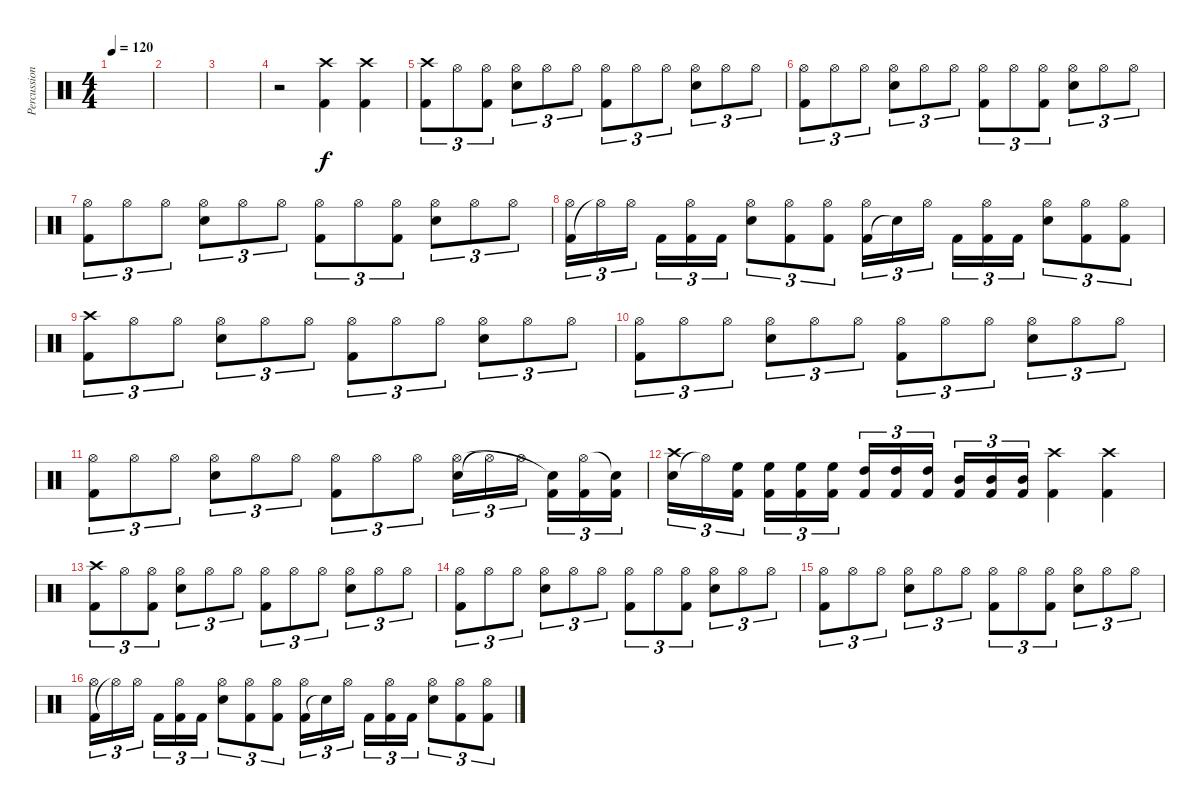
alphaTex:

\track ("Percussions" "Percussion") {instrument percussion}
\staff {score}
\articulation defaults
\ts (4 4)
\tempo 120
\clef neutral
\ks c
|
|
|
r.2 ("Kick (hit) 2" "Crash high (hit)").4 ("Kick (hit) 2" "Crash high (hit)").4 |
("Kick (hit) 2" "Crash high (hit)").8{tu (3 2)} "Hi-Hat (open)".8{tu (3 2)} ("Kick (hit) 2" "Hi-Hat (open)").8{tu (3 2)} ("Snare (hit) 2" "Hi-Hat (open)").8{tu (3 2)} "Hi-Hat (open)".8{tu (3 2)} "Hi-Hat (open)".8{tu (3 2)} ("Kick (hit) 2" "Hi-Hat (open)").8{tu (3 2)} "Hi-Hat (open)".8{tu (3 2)} "Hi-Hat (open)".8{tu (3 2)} ("Snare (hit) 2" "Hi-Hat (open)").8{tu (3 2)} "Hi-Hat (open)".8{tu (3 2)} "Hi-Hat (open)".8{tu (3 2)} |
("Kick (hit) 2" "Hi-Hat (open)").8{tu (3 2)} "Hi-Hat (open)".8{tu (3 2)} "Hi-Hat (open)".8{tu (3 2)} ("Snare (hit) 2" "Hi-Hat (open)").8{tu (3 2)} "Hi-Hat (open)".8{tu (3 2)} "Hi-Hat (open)".8{tu (3 2)} ("Kick (hit) 2" "Hi-Hat (open)").8{tu (3 2)} "Hi-Hat (open)".8{tu (3 2)} ("Kick (hit) 2" "Hi-Hat (open)").8{tu (3 2)} ("Snare (hit) 2" "Hi-Hat (open)").8{tu (3 2)} "Hi-Hat (open)".8{tu (3 2)} "Hi-Hat (open)".8{tu (3 2)} |
("Kick (hit) 2" "Hi-Hat (open)").8{tu (3 2)} "Hi-Hat (open)".8{tu (3 2)} "Hi-Hat (open)".8{tu (3 2)} ("Snare (hit) 2" "Hi-Hat (open)").8{tu (3 2)} "Hi-Hat (open)".8{tu (3 2)} "Hi-Hat (open)".8{tu (3 2)} ("Kick (hit) 2" "Hi-Hat (open)").8{tu (3 2)} "Hi-Hat (open)".8{tu (3 2)} ("Kick (hit) 2" "Hi-Hat (open)").8{tu (3 2)} ("Snare (hit) 2" "Hi-Hat (open)").8{tu (3 2)} "Hi-Hat (open)".8{tu (3 2)} "Hi-Hat (open)".8{tu (3 2)} |
("Kick (hit) 2" "Hi-Hat (open)").16{tu (3 2)} "Hi-Hat (open)"{t}.16{tu (3 2)} "Hi-Hat (open)".16{tu (3 2)} "Kick (hit) 2".16{tu (3 2)} ("Kick (hit) 2" "Hi-Hat (open)").16{tu (3 2)} "Kick (hit) 2".16{tu (3 2)} ("Snare (hit) 2" "Hi-Hat (open)").8{tu (3 2)} ("Kick (hit) 2" "Hi-Hat (open)").8{tu (3 2)} ("Kick (hit) 2" "Hi-Hat (open)").8{tu (3 2)} ("Kick (hit) 2" "Hi-Hat (open)").16{tu (3 2)} "Snare (hit)"{t}.16{tu (3 2)} "Hi-Hat (open)".16{tu (3 2)} "Kick (hit) 2".16{tu (3 2)} ("Kick (hit) 2" "Hi-Hat (open)").16{tu (3 2)} "Kick (hit) 2".16{tu (3 2)} ("Snare (hit) 2" "Hi-Hat (open)").8{tu (3 2)} ("Kick (hit) 2" "Hi-Hat (open)").8{tu (3 2)} ("Kick (hit) 2" "Hi-Hat (open)").8{tu (3 2)} |
("Kick (hit) 2" "Crash high (hit)").8{tu (3 2)} "Hi-Hat (open)".8{tu (3 2)} "Hi-Hat (open)".8{tu (3 2)} ("Snare (hit) 2" "Hi-Hat (open)").8{tu (3 2)} "Hi-Hat (open)".8{tu (3 2)} "Hi-Hat (open)".8{tu (3 2)} ("Kick (hit) 2" "Hi-Hat (open)").8{tu (3 2)} "Hi-Hat (open)".8{tu (3 2)} "Hi-Hat (open)".8{tu (3 2)} ("Snare (hit) 2" "Hi-Hat (open)").8{tu (3 2)} "Hi-Hat (open)".8{tu (3 2)} "Hi-Hat (open)".8{tu (3 2)} |
("Kick (hit) 2" "Hi-Hat (open)").8{tu (3 2)} "Hi-Hat (open)".8{tu (3 2)} "Hi-Hat (open)".8{tu (3 2)} ("Snare (hit) 2" "Hi-Hat (open)").8{tu (3 2)} "Hi-Hat (open)".8{tu (3 2)} "Hi-Hat (open)".8{tu (3 2)} ("Kick (hit) 2" "Hi-Hat (open)").8{tu (3 2)} "Hi-Hat (open)".8{tu (3 2)} "Hi-Hat (open)".8{tu (3 2)} ("Snare (hit) 2" "Hi-Hat (open)").8{tu (3 2)} "Hi-Hat (open)".8{tu (3 2)} "Hi-Hat (open)".8{tu (3 2)} |
("Kick (hit) 2" "Hi-Hat (open)").8{tu (3 2)} "Hi-Hat (open)".8{tu (3 2)} "Hi-Hat (open)".8{tu (3 2)} ("Snare (hit) 2" "Hi-Hat (open)").8{tu (3 2)} "Hi-Hat (open)".8{tu (3 2)} "Hi-Hat (open)".8{tu (3 2)} ("Kick (hit) 2" "Hi-Hat (open)").8{tu (3 2)} "Hi-Hat (open)".8{tu (3 2)} "Hi-Hat (open)".8{tu (3 2)} ("Snare (hit) 2" "Hi-Hat (open)").16{tu (3 2)} "Hi-Hat (open)"{t}.16{tu (3 2)} "Hi-Hat (open)".16{tu (3 2)} ("Kick (hit) 2" "Snare (hit)"{t}).16{tu (3 2)} ("Kick (hit) 2" "Hi-Hat (open)").16{tu (3 2)} ("Kick (hit) 2" "Snare (hit)"{t}).16{tu (3 2)} |
("Snare (hit) 2" "Crash high (hit)").16{tu (3 2)} "Hi-Hat (open)"{t}.16{tu (3 2)} ("Kick (hit) 2" "High Floor Tom (hit)").16{tu (3 2)} ("Kick (hit) 2" "High Floor Tom (hit)").16{tu (3 2)} ("Kick (hit) 2" "High Floor Tom (hit)").16{tu (3 2)} ("Kick (hit) 2" "High Floor Tom (hit)").16{tu (3 2)} ("Kick (hit) 2" "High Tom (hit)").16{tu (3 2)} ("Kick (hit) 2" "High Tom (hit)").16{tu (3 2)} ("Kick (hit) 2" "High Tom (hit)").16{tu (3 2)} ("Kick (hit) 2" "Mid Tom (hit)").16{tu (3 2)} ("Kick (hit) 2" "Mid Tom (hit)").16{tu (3 2)} ("Kick (hit) 2" "Mid Tom (hit)").16{tu (3 2)} ("Kick (hit) 2" "Crash high (hit)").4 ("Kick (hit) 2" "Crash high (hit)").4 |
("Kick (hit) 2" "Crash high (hit)").8{tu (3 2)} "Hi-Hat (open)".8{tu (3 2)} ("Kick (hit) 2" "Hi-Hat (open)").8{tu (3 2)} ("Snare (hit) 2" "Hi-Hat (open)").8{tu (3 2)} "Hi-Hat (open)".8{tu (3 2)} "Hi-Hat (open)".8{tu (3 2)} ("Kick (hit) 2" "Hi-Hat (open)").8{tu (3 2)} "Hi-Hat (open)".8{tu (3 2)} "Hi-Hat (open)".8{tu (3 2)} ("Snare (hit) 2" "Hi-Hat (open)").8{tu (3 2)} "Hi-Hat (open)".8{tu (3 2)} "Hi-Hat (open)".8{tu (3 2)} |
("Kick (hit) 2" "Hi-Hat (open)").8{tu (3 2)} "Hi-Hat (open)".8{tu (3 2)} "Hi-Hat (open)".8{tu (3 2)} ("Snare (hit) 2" "Hi-Hat (open)").8{tu (3 2)} "Hi-Hat (open)".8{tu (3 2)} "Hi-Hat (open)".8{tu (3 2)} ("Kick (hit) 2" "Hi-Hat (open)").8{tu (3 2)} "Hi-Hat (open)".8{tu (3 2)} ("Kick (hit) 2" "Hi-Hat (open)").8{tu (3 2)} ("Snare (hit) 2" "Hi-Hat (open)").8{tu (3 2)} "Hi-Hat (open)".8{tu (3 2)} "Hi-Hat (open)".8{tu (3 2)} |
("Kick (hit) 2" "Hi-Hat (open)").8{tu (3 2)} "Hi-Hat (open)".8{tu (3 2)} "Hi-Hat (open)".8{tu (3 2)} ("Snare (hit) 2" "Hi-Hat (open)").8{tu (3 2)} "Hi-Hat (open)".8{tu (3 2)} "Hi-Hat (open)".8{tu (3 2)} ("Kick (hit) 2" "Hi-Hat (open)").8{tu (3 2)} "Hi-Hat (open)".8{tu (3 2)} ("Kick (hit) 2" "Hi-Hat (open)").8{tu (3 2)} ("Snare (hit) 2" "Hi-Hat (open)").8{tu (3 2)} "Hi-Hat (open)".8{tu (3 2)} "Hi-Hat (open)".8{tu (3 2)} |
("Kick (hit) 2" "Hi-Hat (open)").16{tu (3 2)} "Hi-Hat (open)"{t}.16{tu (3 2)} "Hi-Hat (open)".16{tu (3 2)} "Kick (hit) 2".16{tu (3 2)} ("Kick (hit) 2" "Hi-Hat (open)").16{tu (3 2)} "Kick (hit) 2".16{tu (3 2)} ("Snare (hit) 2" "Hi-Hat (open)").8{tu (3 2)} ("Kick (hit) 2" "Hi-Hat (open)").8{tu (3 2)} ("Kick (hit) 2" "Hi-Hat (open)").8{tu (3 2)} ("Kick (hit) 2" "Hi-Hat (open)").16{tu (3 2)} "Snare (hit)"{t}.16{tu (3 2)} "Hi-Hat (open)".16{tu (3 2)} "Kick (hit) 2".16{tu (3 2)} ("Kick (hit) 2" "Hi-Hat (open)").16{tu (3 2)} "Kick (hit) 2".16{tu (3 2)} ("Snare (hit) 2" "Hi-Hat (open)").8{tu (3 2)} ("Kick (hit) 2" "Hi-Hat (open)").8{tu (3 2)} ("Kick (hit) 2" "Hi-Hat (open)").8{tu (3 2)}
